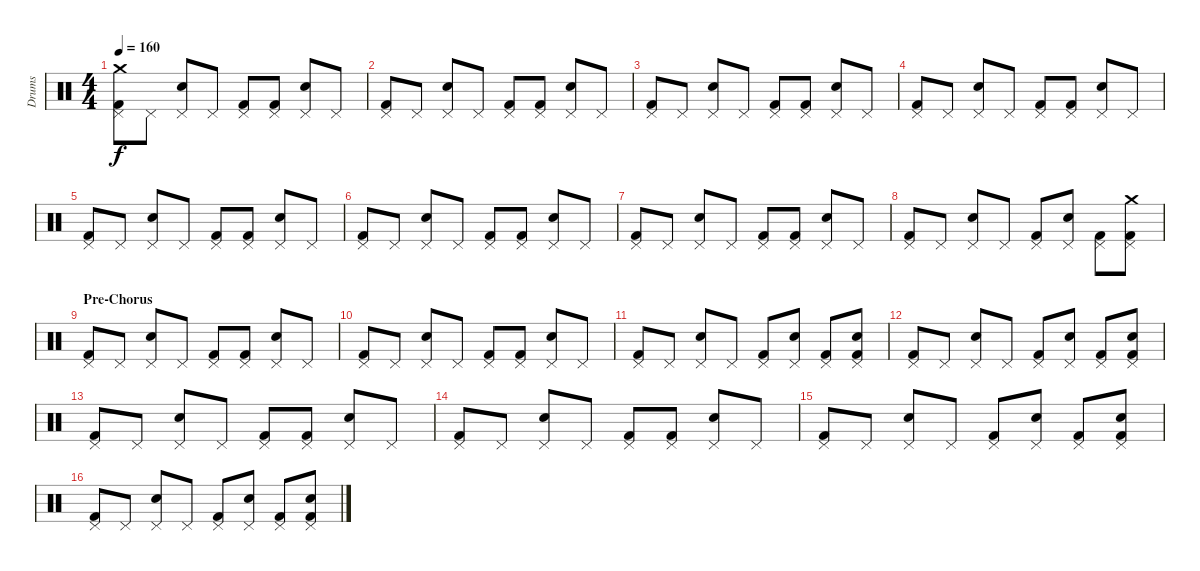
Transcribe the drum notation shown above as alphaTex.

\track ("Drums" "Drums") {instrument percussion}
\staff {score}
\articulation defaults
\ts (4 4)
\tempo 160
\clef neutral
\ks c
("Kick (hit) 2" "Pedal Hi-Hat (hit)" "Crash medium (hit)").8{dy f} "Pedal Hi-Hat (hit)".8 ("Electric Snare (hit)" "Pedal Hi-Hat (hit)").8 "Pedal Hi-Hat (hit)".8 ("Kick (hit) 2" "Pedal Hi-Hat (hit)").8 ("Kick (hit) 2" "Pedal Hi-Hat (hit)").8 ("Electric Snare (hit)" "Pedal Hi-Hat (hit)").8 "Pedal Hi-Hat (hit)".8 |
("Kick (hit) 2" "Pedal Hi-Hat (hit)").8 "Pedal Hi-Hat (hit)".8 ("Electric Snare (hit)" "Pedal Hi-Hat (hit)").8 "Pedal Hi-Hat (hit)".8 ("Kick (hit) 2" "Pedal Hi-Hat (hit)").8 ("Kick (hit) 2" "Pedal Hi-Hat (hit)").8 ("Electric Snare (hit)" "Pedal Hi-Hat (hit)").8 "Pedal Hi-Hat (hit)".8 |
("Kick (hit) 2" "Pedal Hi-Hat (hit)").8 "Pedal Hi-Hat (hit)".8 ("Electric Snare (hit)" "Pedal Hi-Hat (hit)").8 "Pedal Hi-Hat (hit)".8 ("Kick (hit) 2" "Pedal Hi-Hat (hit)").8 ("Kick (hit) 2" "Pedal Hi-Hat (hit)").8 ("Electric Snare (hit)" "Pedal Hi-Hat (hit)").8 "Pedal Hi-Hat (hit)".8 |
("Kick (hit) 2" "Pedal Hi-Hat (hit)").8 "Pedal Hi-Hat (hit)".8 ("Electric Snare (hit)" "Pedal Hi-Hat (hit)").8 "Pedal Hi-Hat (hit)".8 ("Kick (hit) 2" "Pedal Hi-Hat (hit)").8 ("Kick (hit) 2" "Pedal Hi-Hat (hit)").8 ("Electric Snare (hit)" "Pedal Hi-Hat (hit)").8 "Pedal Hi-Hat (hit)".8 |
("Kick (hit) 2" "Pedal Hi-Hat (hit)").8 "Pedal Hi-Hat (hit)".8 ("Electric Snare (hit)" "Pedal Hi-Hat (hit)").8 "Pedal Hi-Hat (hit)".8 ("Kick (hit) 2" "Pedal Hi-Hat (hit)").8 ("Kick (hit) 2" "Pedal Hi-Hat (hit)").8 ("Electric Snare (hit)" "Pedal Hi-Hat (hit)").8 "Pedal Hi-Hat (hit)".8 |
("Kick (hit) 2" "Pedal Hi-Hat (hit)").8 "Pedal Hi-Hat (hit)".8 ("Electric Snare (hit)" "Pedal Hi-Hat (hit)").8 "Pedal Hi-Hat (hit)".8 ("Kick (hit) 2" "Pedal Hi-Hat (hit)").8 ("Kick (hit) 2" "Pedal Hi-Hat (hit)").8 ("Electric Snare (hit)" "Pedal Hi-Hat (hit)").8 "Pedal Hi-Hat (hit)".8 |
("Kick (hit) 2" "Pedal Hi-Hat (hit)").8 "Pedal Hi-Hat (hit)".8 ("Electric Snare (hit)" "Pedal Hi-Hat (hit)").8 "Pedal Hi-Hat (hit)".8 ("Kick (hit) 2" "Pedal Hi-Hat (hit)").8 ("Kick (hit) 2" "Pedal Hi-Hat (hit)").8 ("Electric Snare (hit)" "Pedal Hi-Hat (hit)").8 "Pedal Hi-Hat (hit)".8 |
("Kick (hit) 2" "Pedal Hi-Hat (hit)").8 "Pedal Hi-Hat (hit)".8 ("Electric Snare (hit)" "Pedal Hi-Hat (hit)").8 "Pedal Hi-Hat (hit)".8 ("Kick (hit) 2" "Pedal Hi-Hat (hit)").8 ("Pedal Hi-Hat (hit)" "Electric Snare (hit)").8 ("Kick (hit) 2" "Pedal Hi-Hat (hit)").8 ("Kick (hit) 2" "Pedal Hi-Hat (hit)" "Crash medium (hit)").8 |
\section ("" "Pre-Chorus")
("Kick (hit) 2" "Pedal Hi-Hat (hit)").8 "Pedal Hi-Hat (hit)".8 ("Electric Snare (hit)" "Pedal Hi-Hat (hit)").8 "Pedal Hi-Hat (hit)".8 ("Kick (hit) 2" "Pedal Hi-Hat (hit)").8 ("Kick (hit) 2" "Pedal Hi-Hat (hit)").8 ("Electric Snare (hit)" "Pedal Hi-Hat (hit)").8 "Pedal Hi-Hat (hit)".8 |
("Kick (hit) 2" "Pedal Hi-Hat (hit)").8 "Pedal Hi-Hat (hit)".8 ("Electric Snare (hit)" "Pedal Hi-Hat (hit)").8 "Pedal Hi-Hat (hit)".8 ("Kick (hit) 2" "Pedal Hi-Hat (hit)").8 ("Kick (hit) 2" "Pedal Hi-Hat (hit)").8 ("Electric Snare (hit)" "Pedal Hi-Hat (hit)").8 "Pedal Hi-Hat (hit)".8 |
("Kick (hit) 2" "Pedal Hi-Hat (hit)").8 "Pedal Hi-Hat (hit)".8 ("Electric Snare (hit)" "Pedal Hi-Hat (hit)").8 "Pedal Hi-Hat (hit)".8 ("Kick (hit) 2" "Pedal Hi-Hat (hit)").8 ("Pedal Hi-Hat (hit)" "Electric Snare (hit)").8 ("Kick (hit) 2" "Pedal Hi-Hat (hit)").8 ("Kick (hit) 2" "Pedal Hi-Hat (hit)" "Electric Snare (hit)").8 |
("Kick (hit) 2" "Pedal Hi-Hat (hit)").8 "Pedal Hi-Hat (hit)".8 ("Electric Snare (hit)" "Pedal Hi-Hat (hit)").8 "Pedal Hi-Hat (hit)".8 ("Kick (hit) 2" "Pedal Hi-Hat (hit)").8 ("Pedal Hi-Hat (hit)" "Electric Snare (hit)").8 ("Kick (hit) 2" "Pedal Hi-Hat (hit)").8 ("Kick (hit) 2" "Pedal Hi-Hat (hit)" "Electric Snare (hit)").8 |
("Kick (hit) 2" "Pedal Hi-Hat (hit)").8 "Pedal Hi-Hat (hit)".8 ("Electric Snare (hit)" "Pedal Hi-Hat (hit)").8 "Pedal Hi-Hat (hit)".8 ("Kick (hit) 2" "Pedal Hi-Hat (hit)").8 ("Kick (hit) 2" "Pedal Hi-Hat (hit)").8 ("Electric Snare (hit)" "Pedal Hi-Hat (hit)").8 "Pedal Hi-Hat (hit)".8 |
("Kick (hit) 2" "Pedal Hi-Hat (hit)").8 "Pedal Hi-Hat (hit)".8 ("Electric Snare (hit)" "Pedal Hi-Hat (hit)").8 "Pedal Hi-Hat (hit)".8 ("Kick (hit) 2" "Pedal Hi-Hat (hit)").8 ("Kick (hit) 2" "Pedal Hi-Hat (hit)").8 ("Electric Snare (hit)" "Pedal Hi-Hat (hit)").8 "Pedal Hi-Hat (hit)".8 |
("Kick (hit) 2" "Pedal Hi-Hat (hit)").8 "Pedal Hi-Hat (hit)".8 ("Electric Snare (hit)" "Pedal Hi-Hat (hit)").8 "Pedal Hi-Hat (hit)".8 ("Kick (hit) 2" "Pedal Hi-Hat (hit)").8 ("Pedal Hi-Hat (hit)" "Electric Snare (hit)").8 ("Kick (hit) 2" "Pedal Hi-Hat (hit)").8 ("Kick (hit) 2" "Pedal Hi-Hat (hit)" "Electric Snare (hit)").8 |
("Kick (hit) 2" "Pedal Hi-Hat (hit)").8 "Pedal Hi-Hat (hit)".8 ("Electric Snare (hit)" "Pedal Hi-Hat (hit)").8 "Pedal Hi-Hat (hit)".8 ("Kick (hit) 2" "Pedal Hi-Hat (hit)").8 ("Pedal Hi-Hat (hit)" "Electric Snare (hit)").8 ("Kick (hit) 2" "Pedal Hi-Hat (hit)").8 ("Kick (hit) 2" "Pedal Hi-Hat (hit)" "Electric Snare (hit)").8
